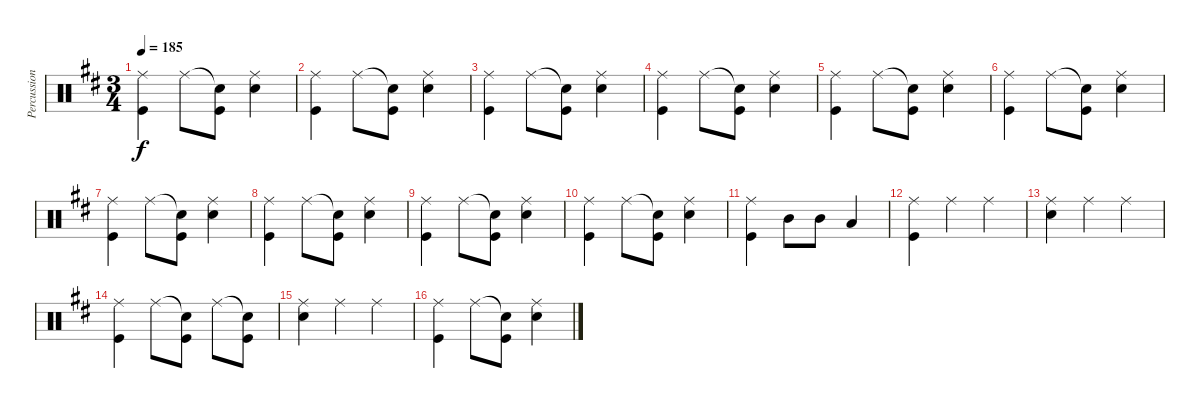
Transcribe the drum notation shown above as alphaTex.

\track ("Percussion" "Percussion") {instrument percussion}
\staff {score}
\articulation defaults
\ts (3 4)
\tempo 185
\clef neutral
\ks d
("Ride (middle)" "Kick (hit)").4{dy f} "Ride (middle)".8 ("Snare (hit)"{t} "Kick (hit)").8 ("Ride (middle)" "Snare (hit) 2").4 |
("Ride (middle)" "Kick (hit)").4 "Ride (middle)".8 ("Snare (hit)"{t} "Kick (hit)").8 ("Ride (middle)" "Snare (hit) 2").4 |
("Ride (middle)" "Kick (hit)").4 "Ride (middle)".8 ("Snare (hit)"{t} "Kick (hit)").8 ("Ride (middle)" "Snare (hit) 2").4 |
("Ride (middle)" "Kick (hit)").4 "Ride (middle)".8 ("Snare (hit)"{t} "Kick (hit)").8 ("Ride (middle)" "Snare (hit) 2").4 |
("Ride (middle)" "Kick (hit)").4 "Ride (middle)".8 ("Snare (hit)"{t} "Kick (hit)").8 ("Ride (middle)" "Snare (hit) 2").4 |
("Ride (middle)" "Kick (hit)").4 "Ride (middle)".8 ("Snare (hit)"{t} "Kick (hit)").8 ("Ride (middle)" "Snare (hit) 2").4 |
("Ride (middle)" "Kick (hit)").4 "Ride (middle)".8 ("Snare (hit)"{t} "Kick (hit)").8 ("Ride (middle)" "Snare (hit) 2").4 |
("Ride (middle)" "Kick (hit)").4 "Ride (middle)".8 ("Snare (hit)"{t} "Kick (hit)").8 ("Ride (middle)" "Snare (hit) 2").4 |
("Ride (middle)" "Kick (hit)").4 "Ride (middle)".8 ("Snare (hit)"{t} "Kick (hit)").8 ("Ride (middle)" "Snare (hit) 2").4 |
("Ride (middle)" "Kick (hit)").4 "Ride (middle)".8 ("Snare (hit)"{t} "Kick (hit)").8 ("Ride (middle)" "Snare (hit) 2").4 |
("Ride (middle)" "Kick (hit)").4 "Mid Tom (hit)".8 "Mid Tom (hit)".8 "Low Tom (hit)".4 |
("Ride (middle)" "Kick (hit)").4 "Ride (middle)".4 "Ride (middle)".4 |
("Ride (middle)" "Snare (hit) 2").4 "Ride (middle)".4 "Ride (middle)".4 |
("Ride (middle)" "Kick (hit)").4 "Ride (middle)".8 ("Snare (hit)"{t} "Kick (hit)").8 "Ride (middle)".8 ("Snare (hit)"{t} "Kick (hit)").8 |
("Ride (middle)" "Snare (hit) 2").4 "Ride (middle)".4 "Ride (middle)".4 |
("Ride (middle)" "Kick (hit)").4 "Ride (middle)".8 ("Snare (hit)"{t} "Kick (hit)").8 ("Ride (middle)" "Snare (hit) 2").4
